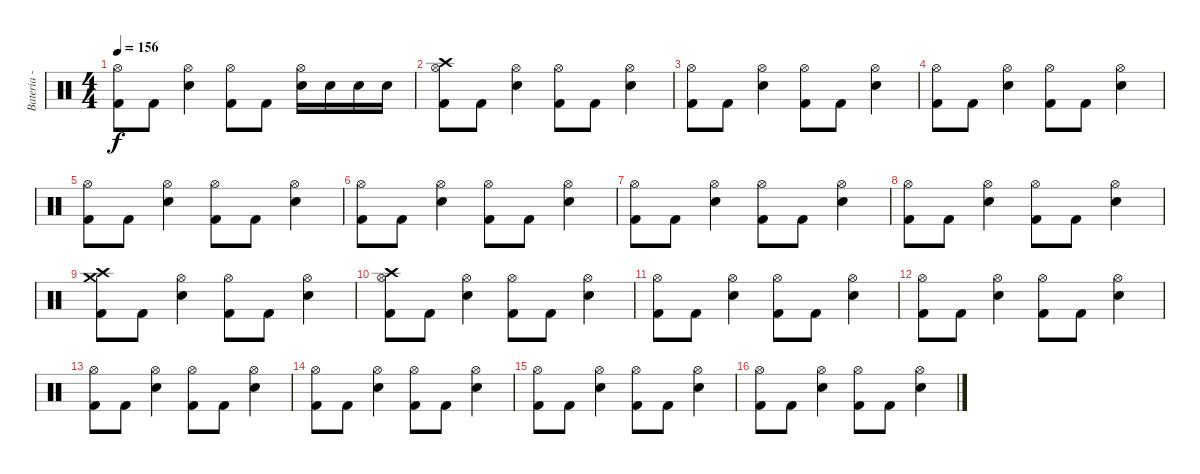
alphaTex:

\track ("Bateria - Kalú" "Bateria - ") {instrument percussion}
\staff {score}
\articulation defaults
\ts (4 4)
\tempo 156
\clef neutral
\ks c
("Hi-Hat (open)" "Kick (hit) 2").8{dy f} "Kick (hit) 2".8 ("Hi-Hat (open)" "Electric Snare (hit)").4 ("Hi-Hat (open)" "Kick (hit) 2").8 "Kick (hit) 2".8 ("Hi-Hat (open)" "Electric Snare (hit)").16 "Electric Snare (hit)".16 "Electric Snare (hit)".16 "Electric Snare (hit)".16 |
("Crash high (hit)" "Hi-Hat (open)" "Kick (hit) 2").8 "Kick (hit) 2".8 ("Hi-Hat (open)" "Electric Snare (hit)").4 ("Hi-Hat (open)" "Kick (hit) 2").8 "Kick (hit) 2".8 ("Hi-Hat (open)" "Electric Snare (hit)").4 |
("Hi-Hat (open)" "Kick (hit) 2").8 "Kick (hit) 2".8 ("Hi-Hat (open)" "Electric Snare (hit)").4 ("Hi-Hat (open)" "Kick (hit) 2").8 "Kick (hit) 2".8 ("Hi-Hat (open)" "Electric Snare (hit)").4 |
("Hi-Hat (open)" "Kick (hit) 2").8 "Kick (hit) 2".8 ("Hi-Hat (open)" "Electric Snare (hit)").4 ("Hi-Hat (open)" "Kick (hit) 2").8 "Kick (hit) 2".8 ("Hi-Hat (open)" "Electric Snare (hit)").4 |
("Hi-Hat (open)" "Kick (hit) 2").8 "Kick (hit) 2".8 ("Hi-Hat (open)" "Electric Snare (hit)").4 ("Hi-Hat (open)" "Kick (hit) 2").8 "Kick (hit) 2".8 ("Hi-Hat (open)" "Electric Snare (hit)").4 |
("Hi-Hat (open)" "Kick (hit) 2").8 "Kick (hit) 2".8 ("Hi-Hat (open)" "Electric Snare (hit)").4 ("Hi-Hat (open)" "Kick (hit) 2").8 "Kick (hit) 2".8 ("Hi-Hat (open)" "Electric Snare (hit)").4 |
("Hi-Hat (open)" "Kick (hit) 2").8 "Kick (hit) 2".8 ("Hi-Hat (open)" "Electric Snare (hit)").4 ("Hi-Hat (open)" "Kick (hit) 2").8 "Kick (hit) 2".8 ("Hi-Hat (open)" "Electric Snare (hit)").4 |
("Hi-Hat (open)" "Kick (hit) 2").8 "Kick (hit) 2".8 ("Hi-Hat (open)" "Electric Snare (hit)").4 ("Hi-Hat (open)" "Kick (hit) 2").8 "Kick (hit) 2".8 ("Hi-Hat (open)" "Electric Snare (hit)").4 |
("Crash high (hit)" "Crash medium (hit)" "Kick (hit) 2").8 "Kick (hit) 2".8 ("Hi-Hat (open)" "Electric Snare (hit)").4 ("Hi-Hat (open)" "Kick (hit) 2").8 "Kick (hit) 2".8 ("Hi-Hat (open)" "Electric Snare (hit)").4 |
("Crash high (hit)" "Hi-Hat (open)" "Kick (hit) 2").8 "Kick (hit) 2".8 ("Hi-Hat (open)" "Electric Snare (hit)").4 ("Hi-Hat (open)" "Kick (hit) 2").8 "Kick (hit) 2".8 ("Hi-Hat (open)" "Electric Snare (hit)").4 |
("Hi-Hat (open)" "Kick (hit) 2").8 "Kick (hit) 2".8 ("Hi-Hat (open)" "Electric Snare (hit)").4 ("Hi-Hat (open)" "Kick (hit) 2").8 "Kick (hit) 2".8 ("Hi-Hat (open)" "Electric Snare (hit)").4 |
("Hi-Hat (open)" "Kick (hit) 2").8 "Kick (hit) 2".8 ("Hi-Hat (open)" "Electric Snare (hit)").4 ("Hi-Hat (open)" "Kick (hit) 2").8 "Kick (hit) 2".8 ("Hi-Hat (open)" "Electric Snare (hit)").4 |
("Hi-Hat (open)" "Kick (hit) 2").8 "Kick (hit) 2".8 ("Hi-Hat (open)" "Electric Snare (hit)").4 ("Hi-Hat (open)" "Kick (hit) 2").8 "Kick (hit) 2".8 ("Hi-Hat (open)" "Electric Snare (hit)").4 |
("Hi-Hat (open)" "Kick (hit) 2").8 "Kick (hit) 2".8 ("Hi-Hat (open)" "Electric Snare (hit)").4 ("Hi-Hat (open)" "Kick (hit) 2").8 "Kick (hit) 2".8 ("Hi-Hat (open)" "Electric Snare (hit)").4 |
("Hi-Hat (open)" "Kick (hit) 2").8 "Kick (hit) 2".8 ("Hi-Hat (open)" "Electric Snare (hit)").4 ("Hi-Hat (open)" "Kick (hit) 2").8 "Kick (hit) 2".8 ("Hi-Hat (open)" "Electric Snare (hit)").4 |
("Hi-Hat (open)" "Kick (hit) 2").8 "Kick (hit) 2".8 ("Hi-Hat (open)" "Electric Snare (hit)").4 ("Hi-Hat (open)" "Kick (hit) 2").8 "Kick (hit) 2".8 ("Hi-Hat (open)" "Electric Snare (hit)").4
